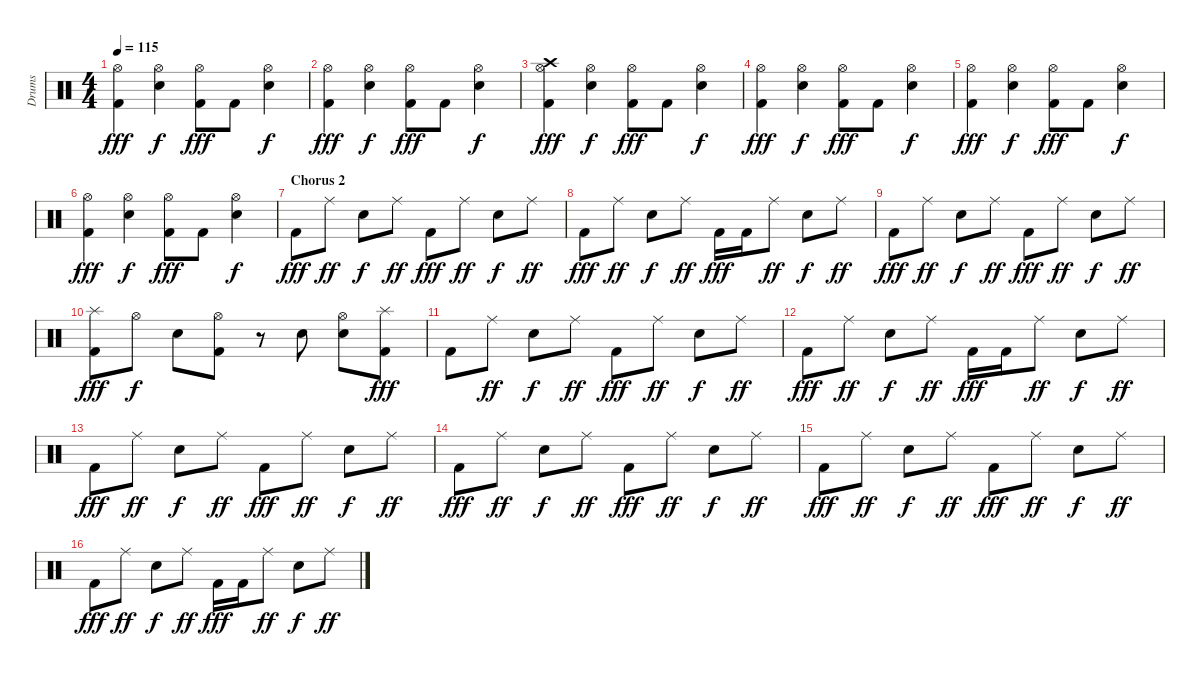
\track ("Drums" "Drums") {instrument percussion}
\staff {score}
\articulation defaults
\ts (4 4)
\tempo 115
\clef neutral
\ks c
("Hi-Hat (open)" "Kick (hit) 2").4{dy fff} ("Hi-Hat (open)" "Snare (hit) 2").4{dy f} ("Hi-Hat (open)" "Kick (hit) 2").8{dy fff} "Kick (hit) 2".8 ("Hi-Hat (open)" "Snare (hit) 2").4{dy f} |
("Hi-Hat (open)" "Kick (hit) 2").4{dy fff} ("Hi-Hat (open)" "Snare (hit) 2").4{dy f} ("Hi-Hat (open)" "Kick (hit) 2").8{dy fff} "Kick (hit) 2".8 ("Hi-Hat (open)" "Snare (hit) 2").4{dy f} |
("Hi-Hat (open)" "Crash high (hit)" "Kick (hit) 2").4{dy fff} ("Hi-Hat (open)" "Snare (hit) 2").4{dy f} ("Hi-Hat (open)" "Kick (hit) 2").8{dy fff} "Kick (hit) 2".8 ("Hi-Hat (open)" "Snare (hit) 2").4{dy f} |
("Hi-Hat (open)" "Kick (hit) 2").4{dy fff} ("Hi-Hat (open)" "Snare (hit) 2").4{dy f} ("Hi-Hat (open)" "Kick (hit) 2").8{dy fff} "Kick (hit) 2".8 ("Hi-Hat (open)" "Snare (hit) 2").4{dy f} |
("Hi-Hat (open)" "Kick (hit) 2").4{dy fff} ("Hi-Hat (open)" "Snare (hit) 2").4{dy f} ("Hi-Hat (open)" "Kick (hit) 2").8{dy fff} "Kick (hit) 2".8 ("Hi-Hat (open)" "Snare (hit) 2").4{dy f} |
("Hi-Hat (open)" "Kick (hit) 2").4{dy fff} ("Hi-Hat (open)" "Snare (hit) 2").4{dy f} ("Hi-Hat (open)" "Kick (hit) 2").8{dy fff} "Kick (hit) 2".8 ("Hi-Hat (open)" "Snare (hit) 2").4{dy f} |
\section ("" "Chorus 2")
"Kick (hit) 2".8{dy fff} "Ride (middle)".8{dy ff} "Snare (hit) 2".8{dy f} "Ride (middle)".8{dy ff} "Kick (hit) 2".8{dy fff} "Ride (middle)".8{dy ff} "Snare (hit) 2".8{dy f} "Ride (middle)".8{dy ff} |
"Kick (hit) 2".8{dy fff} "Ride (middle)".8{dy ff} "Snare (hit) 2".8{dy f} "Ride (middle)".8{dy ff} "Kick (hit) 2".16{dy fff} "Kick (hit) 2".16 "Ride (middle)".8{dy ff} "Snare (hit) 2".8{dy f} "Ride (middle)".8{dy ff} |
"Kick (hit) 2".8{dy fff} "Ride (middle)".8{dy ff} "Snare (hit) 2".8{dy f} "Ride (middle)".8{dy ff} "Kick (hit) 2".8{dy fff} "Ride (middle)".8{dy ff} "Snare (hit) 2".8{dy f} "Ride (middle)".8{dy ff} |
("Splash (hit)" "Kick (hit) 2").8{dy fff} "Hi-Hat (open)".8{dy f} "Snare (hit) 2".8 ("Hi-Hat (open)" "Kick (hit) 2").8 r.8 "Snare (hit) 2".8 ("Hi-Hat (open)" "Snare (hit) 2").8 ("Splash (hit)" "Kick (hit) 2").8{dy fff} |
"Kick (hit) 2".8 "Ride (middle)".8{dy ff} "Snare (hit) 2".8{dy f} "Ride (middle)".8{dy ff} "Kick (hit) 2".8{dy fff} "Ride (middle)".8{dy ff} "Snare (hit) 2".8{dy f} "Ride (middle)".8{dy ff} |
"Kick (hit) 2".8{dy fff} "Ride (middle)".8{dy ff} "Snare (hit) 2".8{dy f} "Ride (middle)".8{dy ff} "Kick (hit) 2".16{dy fff} "Kick (hit) 2".16 "Ride (middle)".8{dy ff} "Snare (hit) 2".8{dy f} "Ride (middle)".8{dy ff} |
"Kick (hit) 2".8{dy fff} "Ride (middle)".8{dy ff} "Snare (hit) 2".8{dy f} "Ride (middle)".8{dy ff} "Kick (hit) 2".8{dy fff} "Ride (middle)".8{dy ff} "Snare (hit) 2".8{dy f} "Ride (middle)".8{dy ff} |
"Kick (hit) 2".8{dy fff} "Ride (middle)".8{dy ff} "Snare (hit) 2".8{dy f} "Ride (middle)".8{dy ff} "Kick (hit) 2".8{dy fff} "Ride (middle)".8{dy ff} "Snare (hit) 2".8{dy f} "Ride (middle)".8{dy ff} |
"Kick (hit) 2".8{dy fff} "Ride (middle)".8{dy ff} "Snare (hit) 2".8{dy f} "Ride (middle)".8{dy ff} "Kick (hit) 2".8{dy fff} "Ride (middle)".8{dy ff} "Snare (hit) 2".8{dy f} "Ride (middle)".8{dy ff} |
"Kick (hit) 2".8{dy fff} "Ride (middle)".8{dy ff} "Snare (hit) 2".8{dy f} "Ride (middle)".8{dy ff} "Kick (hit) 2".16{dy fff} "Kick (hit) 2".16 "Ride (middle)".8{dy ff} "Snare (hit) 2".8{dy f} "Ride (middle)".8{dy ff}
